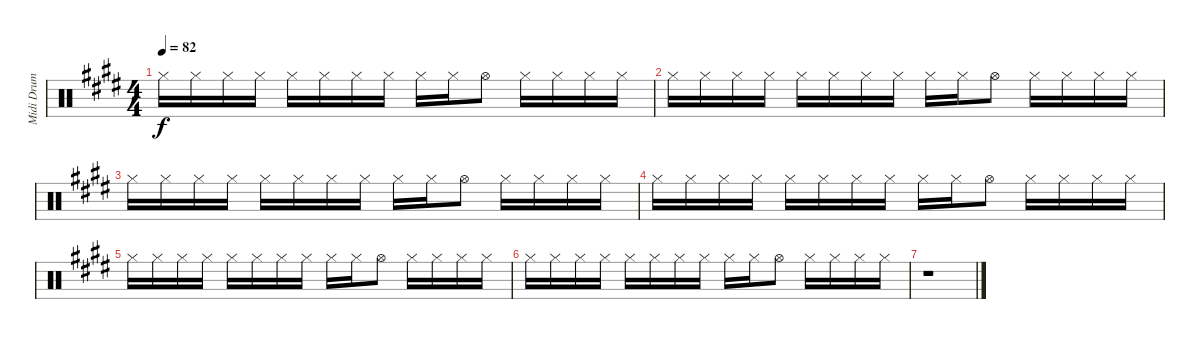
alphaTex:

\track ("Midi Drum" "Midi Drum") {instrument percussion}
\staff {score}
\articulation defaults
\ts (4 4)
\tempo 82
\clef neutral
\ks e "Hi-Hat (closed)".16{dy f} "Hi-Hat (closed)".16 "Hi-Hat (closed)".16 "Hi-Hat (closed)".16 "Hi-Hat (closed)".16 "Hi-Hat (closed)".16 "Hi-Hat (closed)".16 "Hi-Hat (closed)".16 "Hi-Hat (closed)".16 "Hi-Hat (closed)".16 "Hi-Hat (open)".8 "Hi-Hat (closed)".16 "Hi-Hat (closed)".16 "Hi-Hat (closed)".16 "Hi-Hat (closed)".16
|
"Hi-Hat (closed)".16 "Hi-Hat (closed)".16 "Hi-Hat (closed)".16 "Hi-Hat (closed)".16 "Hi-Hat (closed)".16 "Hi-Hat (closed)".16 "Hi-Hat (closed)".16 "Hi-Hat (closed)".16 "Hi-Hat (closed)".16 "Hi-Hat (closed)".16 "Hi-Hat (open)".8 "Hi-Hat (closed)".16 "Hi-Hat (closed)".16 "Hi-Hat (closed)".16 "Hi-Hat (closed)".16 |
"Hi-Hat (closed)".16 "Hi-Hat (closed)".16 "Hi-Hat (closed)".16 "Hi-Hat (closed)".16 "Hi-Hat (closed)".16 "Hi-Hat (closed)".16 "Hi-Hat (closed)".16 "Hi-Hat (closed)".16 "Hi-Hat (closed)".16 "Hi-Hat (closed)".16 "Hi-Hat (open)".8 "Hi-Hat (closed)".16 "Hi-Hat (closed)".16 "Hi-Hat (closed)".16 "Hi-Hat (closed)".16 |
"Hi-Hat (closed)".16 "Hi-Hat (closed)".16 "Hi-Hat (closed)".16 "Hi-Hat (closed)".16 "Hi-Hat (closed)".16 "Hi-Hat (closed)".16 "Hi-Hat (closed)".16 "Hi-Hat (closed)".16 "Hi-Hat (closed)".16 "Hi-Hat (closed)".16 "Hi-Hat (open)".8 "Hi-Hat (closed)".16 "Hi-Hat (closed)".16 "Hi-Hat (closed)".16 "Hi-Hat (closed)".16 |
"Hi-Hat (closed)".16 "Hi-Hat (closed)".16 "Hi-Hat (closed)".16 "Hi-Hat (closed)".16 "Hi-Hat (closed)".16 "Hi-Hat (closed)".16 "Hi-Hat (closed)".16 "Hi-Hat (closed)".16 "Hi-Hat (closed)".16 "Hi-Hat (closed)".16 "Hi-Hat (open)".8 "Hi-Hat (closed)".16 "Hi-Hat (closed)".16 "Hi-Hat (closed)".16 "Hi-Hat (closed)".16 |
"Hi-Hat (closed)".16 "Hi-Hat (closed)".16 "Hi-Hat (closed)".16 "Hi-Hat (closed)".16 "Hi-Hat (closed)".16 "Hi-Hat (closed)".16 "Hi-Hat (closed)".16 "Hi-Hat (closed)".16 "Hi-Hat (closed)".16 "Hi-Hat (closed)".16 "Hi-Hat (open)".8 "Hi-Hat (closed)".16 "Hi-Hat (closed)".16 "Hi-Hat (closed)".16 "Hi-Hat (closed)".16 |
r.1
